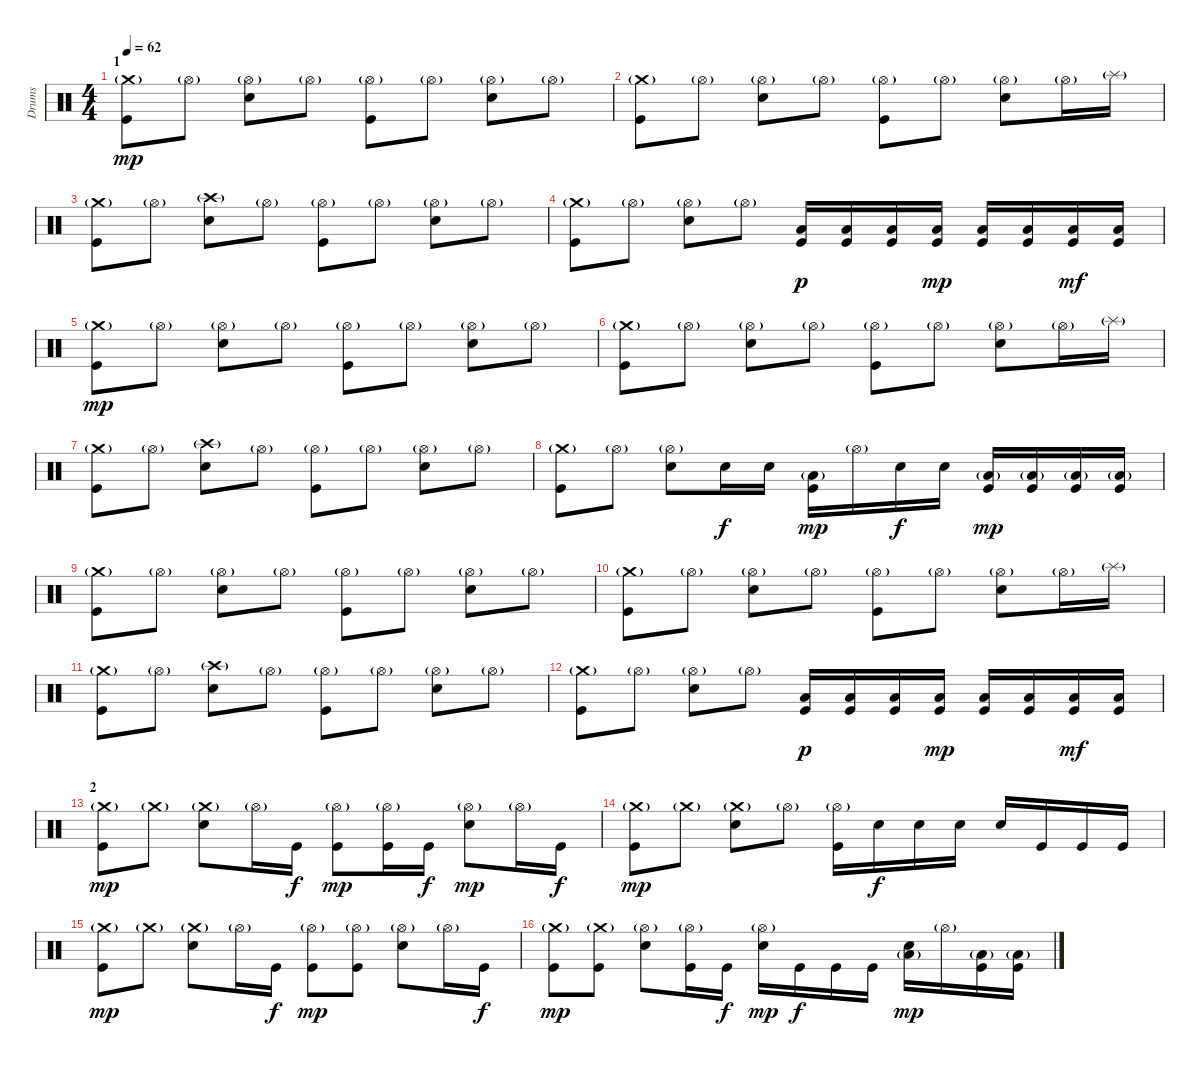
\track ("Drums" "Drums") {instrument percussion}
\staff {score}
\articulation defaults
\ts (4 4)
\section ("" "1")
\tempo 62
\clef neutral
\ks c
("Kick (hit)" "Crash medium (hit)"{g}).8{dy mp} "Hi-Hat (open)"{g}.8 ("Electric Snare (hit)" "Hi-Hat (open)"{g}).8 "Hi-Hat (open)"{g}.8 ("Kick (hit)" "Hi-Hat (open)"{g}).8 "Hi-Hat (open)"{g}.8 ("Electric Snare (hit)" "Hi-Hat (open)"{g}).8 "Hi-Hat (open)"{g}.8 |
("Kick (hit)" "Crash medium (hit)"{g}).8 "Hi-Hat (open)"{g}.8 ("Electric Snare (hit)" "Hi-Hat (open)"{g}).8 "Hi-Hat (open)"{g}.8 ("Kick (hit)" "Hi-Hat (open)"{g}).8 "Hi-Hat (open)"{g}.8 ("Electric Snare (hit)" "Hi-Hat (open)"{g}).8 "Hi-Hat (open)"{g}.16 "Splash (hit)"{g}.16 |
("Kick (hit)" "Crash medium (hit)"{g}).8 "Hi-Hat (open)"{g}.8 ("Electric Snare (hit)" "Crash high (hit)"{g}).8 "Hi-Hat (open)"{g}.8 ("Kick (hit)" "Hi-Hat (open)"{g}).8 "Hi-Hat (open)"{g}.8 ("Electric Snare (hit)" "Hi-Hat (open)"{g}).8 "Hi-Hat (open)"{g}.8 |
("Kick (hit)" "Crash medium (hit)"{g}).8 "Hi-Hat (open)"{g}.8 ("Electric Snare (hit)" "Hi-Hat (open)"{g}).8 "Hi-Hat (open)"{g}.8 ("Kick (hit)" "Low Floor Tom (hit)").16{dy p} ("Kick (hit)" "Low Floor Tom (hit)").16 ("Kick (hit)" "Low Floor Tom (hit)").16 ("Kick (hit)" "Low Floor Tom (hit)").16{dy mp} ("Kick (hit)" "Low Floor Tom (hit)").16 ("Kick (hit)" "Low Floor Tom (hit)").16 ("Kick (hit)" "Low Floor Tom (hit)").16{dy mf} ("Kick (hit)" "Low Floor Tom (hit)").16 |
("Kick (hit)" "Crash medium (hit)"{g}).8{dy mp} "Hi-Hat (open)"{g}.8 ("Electric Snare (hit)" "Hi-Hat (open)"{g}).8 "Hi-Hat (open)"{g}.8 ("Kick (hit)" "Hi-Hat (open)"{g}).8 "Hi-Hat (open)"{g}.8 ("Electric Snare (hit)" "Hi-Hat (open)"{g}).8 "Hi-Hat (open)"{g}.8 |
("Kick (hit)" "Crash medium (hit)"{g}).8 "Hi-Hat (open)"{g}.8 ("Electric Snare (hit)" "Hi-Hat (open)"{g}).8 "Hi-Hat (open)"{g}.8 ("Kick (hit)" "Hi-Hat (open)"{g}).8 "Hi-Hat (open)"{g}.8 ("Electric Snare (hit)" "Hi-Hat (open)"{g}).8 "Hi-Hat (open)"{g}.16 "Splash (hit)"{g}.16 |
("Kick (hit)" "Crash medium (hit)"{g}).8 "Hi-Hat (open)"{g}.8 ("Electric Snare (hit)" "Crash high (hit)"{g}).8 "Hi-Hat (open)"{g}.8 ("Kick (hit)" "Hi-Hat (open)"{g}).8 "Hi-Hat (open)"{g}.8 ("Electric Snare (hit)" "Hi-Hat (open)"{g}).8 "Hi-Hat (open)"{g}.8 |
("Kick (hit)" "Crash medium (hit)"{g}).8 "Hi-Hat (open)"{g}.8 ("Electric Snare (hit)" "Hi-Hat (open)"{g}).8 "Electric Snare (hit)".16{dy f} "Electric Snare (hit)".16 ("Kick (hit)" "Low Floor Tom (hit)"{g}).16{dy mp} "Hi-Hat (open)"{g}.16 "Electric Snare (hit)".16{dy f} "Electric Snare (hit)".16 ("Kick (hit)" "Low Floor Tom (hit)"{g}).16{dy mp} ("Kick (hit)" "Low Floor Tom (hit)"{g}).16 ("Kick (hit)" "Low Floor Tom (hit)"{g}).16 ("Kick (hit)" "Low Floor Tom (hit)"{g}).16 |
("Kick (hit)" "Crash medium (hit)"{g}).8 "Hi-Hat (open)"{g}.8 ("Electric Snare (hit)" "Hi-Hat (open)"{g}).8 "Hi-Hat (open)"{g}.8 ("Kick (hit)" "Hi-Hat (open)"{g}).8 "Hi-Hat (open)"{g}.8 ("Electric Snare (hit)" "Hi-Hat (open)"{g}).8 "Hi-Hat (open)"{g}.8 |
("Kick (hit)" "Crash medium (hit)"{g}).8 "Hi-Hat (open)"{g}.8 ("Electric Snare (hit)" "Hi-Hat (open)"{g}).8 "Hi-Hat (open)"{g}.8 ("Kick (hit)" "Hi-Hat (open)"{g}).8 "Hi-Hat (open)"{g}.8 ("Electric Snare (hit)" "Hi-Hat (open)"{g}).8 "Hi-Hat (open)"{g}.16 "Splash (hit)"{g}.16 |
("Kick (hit)" "Crash medium (hit)"{g}).8 "Hi-Hat (open)"{g}.8 ("Electric Snare (hit)" "Crash high (hit)"{g}).8 "Hi-Hat (open)"{g}.8 ("Kick (hit)" "Hi-Hat (open)"{g}).8 "Hi-Hat (open)"{g}.8 ("Electric Snare (hit)" "Hi-Hat (open)"{g}).8 "Hi-Hat (open)"{g}.8 |
("Kick (hit)" "Crash medium (hit)"{g}).8 "Hi-Hat (open)"{g}.8 ("Electric Snare (hit)" "Hi-Hat (open)"{g}).8 "Hi-Hat (open)"{g}.8 ("Kick (hit)" "Low Floor Tom (hit)").16{dy p} ("Kick (hit)" "Low Floor Tom (hit)").16 ("Kick (hit)" "Low Floor Tom (hit)").16 ("Kick (hit)" "Low Floor Tom (hit)").16{dy mp} ("Kick (hit)" "Low Floor Tom (hit)").16 ("Kick (hit)" "Low Floor Tom (hit)").16 ("Kick (hit)" "Low Floor Tom (hit)").16{dy mf} ("Kick (hit)" "Low Floor Tom (hit)").16 |
\section ("" "2")
("Kick (hit)" "Crash medium (hit)"{g}).8{dy mp} "Crash medium (hit)"{g}.8 ("Electric Snare (hit)" "Crash medium (hit)"{g}).8 "Hi-Hat (open)"{g}.16 "Kick (hit)".16{dy f} ("Kick (hit)" "Hi-Hat (open)"{g}).8{dy mp} ("Kick (hit)" "Hi-Hat (open)"{g}).16 "Kick (hit)".16{dy f} ("Electric Snare (hit)" "Hi-Hat (open)"{g}).8{dy mp} "Hi-Hat (open)"{g}.16 "Kick (hit)".16{dy f} |
("Kick (hit)" "Crash medium (hit)"{g}).8{dy mp} "Crash medium (hit)"{g}.8 ("Electric Snare (hit)" "Crash medium (hit)"{g}).8 "Hi-Hat (open)"{g}.8 ("Kick (hit)" "Hi-Hat (open)"{g}).16 "Electric Snare (hit)".16{dy f} "Electric Snare (hit)".16 "Electric Snare (hit)".16 "Electric Snare (hit)".16 "Kick (hit)".16 "Kick (hit)".16 "Kick (hit)".16 |
("Kick (hit)" "Crash medium (hit)"{g}).8{dy mp} "Crash medium (hit)"{g}.8 ("Electric Snare (hit)" "Crash medium (hit)"{g}).8 "Hi-Hat (open)"{g}.16 "Kick (hit)".16{dy f} ("Kick (hit)" "Hi-Hat (open)"{g}).8{dy mp} ("Kick (hit)" "Hi-Hat (open)"{g}).8 ("Electric Snare (hit)" "Hi-Hat (open)"{g}).8 "Hi-Hat (open)"{g}.16 "Kick (hit)".16{dy f} |
("Kick (hit)" "Crash medium (hit)"{g}).8{dy mp} ("Kick (hit)" "Crash medium (hit)"{g}).8 ("Electric Snare (hit)" "Hi-Hat (open)"{g}).8 ("Kick (hit)" "Hi-Hat (open)"{g}).16 "Kick (hit)".16{dy f} ("Electric Snare (hit)" "Hi-Hat (open)"{g}).16{dy mp} "Kick (hit)".16{dy f} "Kick (hit)".16 "Kick (hit)".16 ("Electric Snare (hit)" "Low Floor Tom (hit)"{g}).16{dy mp} "Hi-Hat (open)"{g}.16 ("Kick (hit)" "Low Floor Tom (hit)"{g}).16 ("Kick (hit)" "Low Floor Tom (hit)"{g}).16
